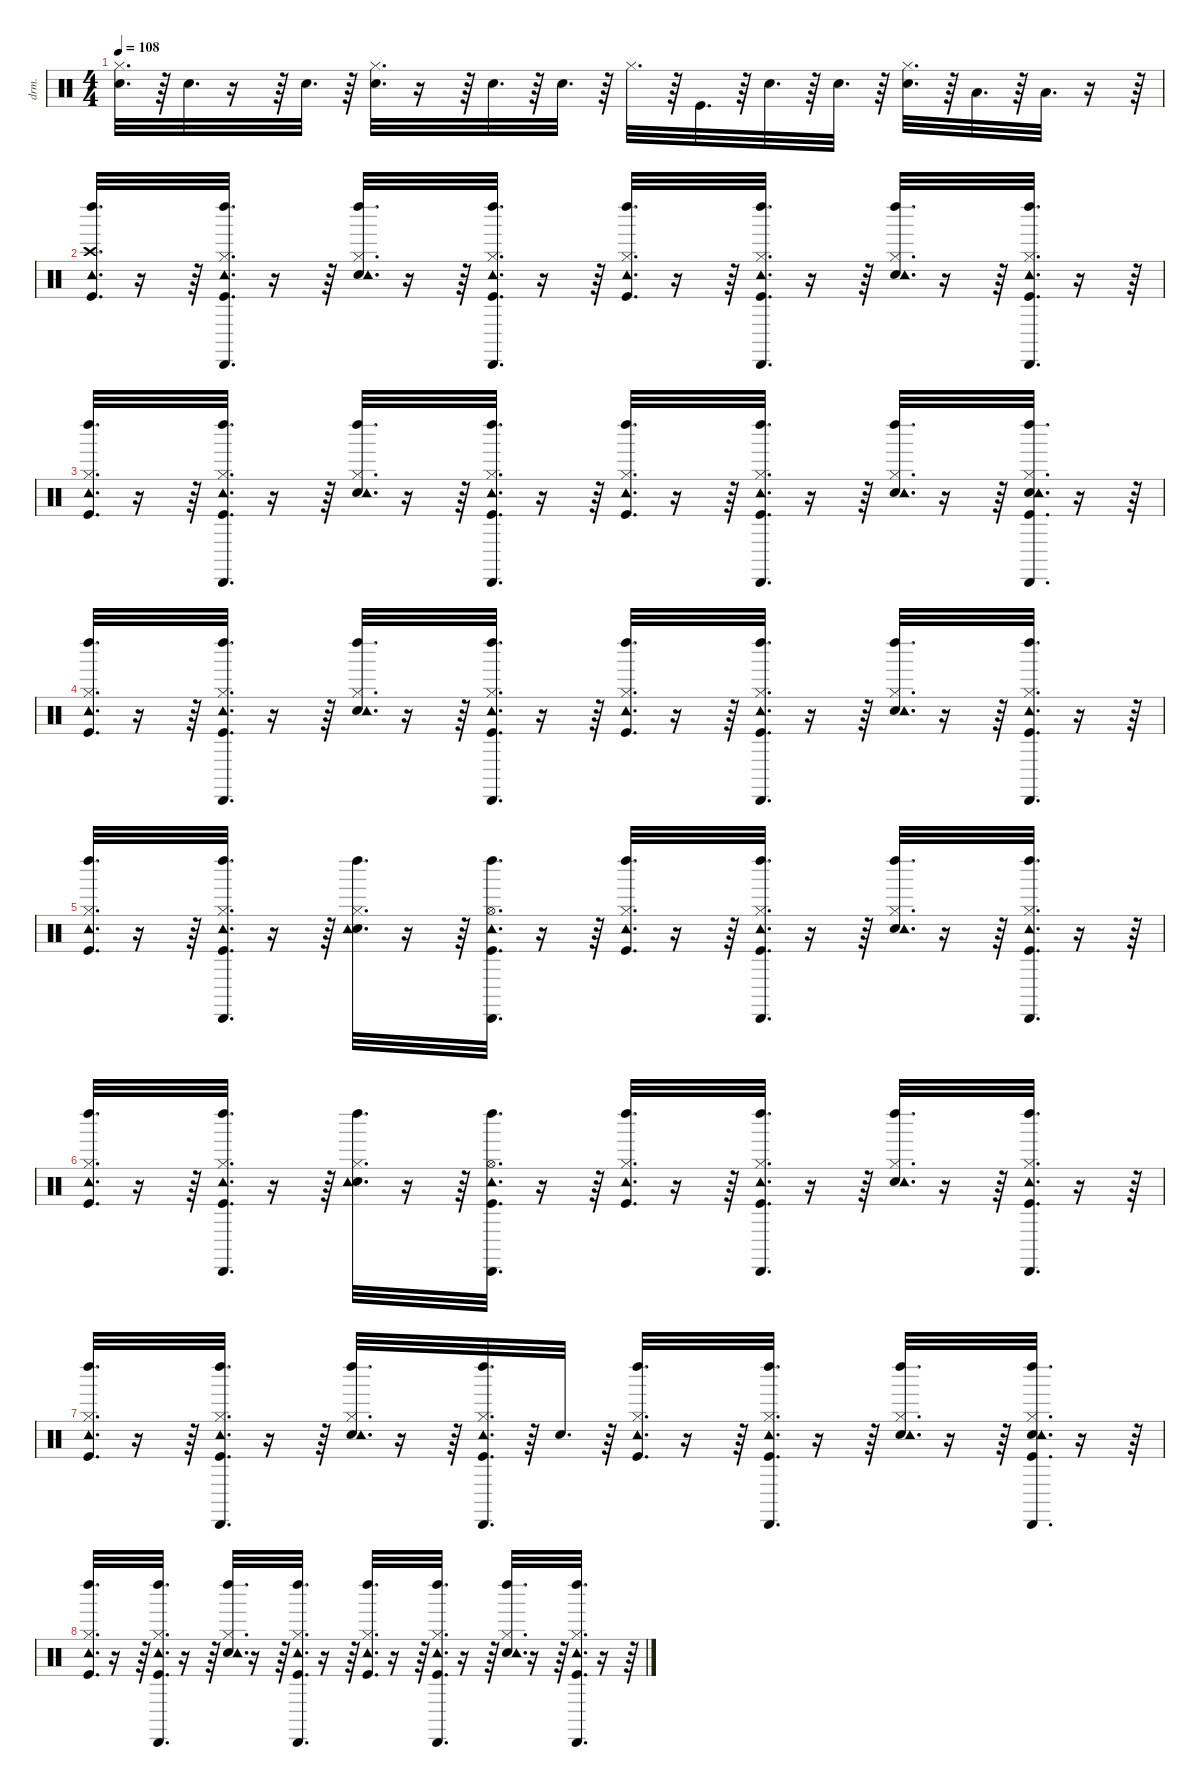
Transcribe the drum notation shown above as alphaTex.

\defaultSystemsLayout 4
\hideDynamics
\bracketExtendMode nobrackets
\otherSystemsTrackNameOrientation horizontal
\track ("Percussions" "drm.") {instrument percussion}
\staff {score}
\articulation defaults
\ts (4 4)
\tempo 108
\clef neutral
\ks c
("Hi-Hat (closed)" "Snare (hit) 2").32{d dy f} r.64 "Snare (hit) 2".32{d} r.16 r.64 "Snare (hit) 2".32{d} r.64 ("Hi-Hat (closed)" "Snare (hit) 2").32{d} r.16 r.64 "Snare (hit) 2".32{d} r.64 "Snare (hit) 2".32{d} r.64 "Hi-Hat (closed)".32{d} r.64 "Kick (hit)".32{d} r.64 "Snare (hit) 2".32{d} r.64 "Snare (hit) 2".32{d} r.64 ("Hi-Hat (closed)" "Snare (hit) 2").32{d} r.64 "Low Tom (hit)".32{d} r.64 "Low Tom (hit)".32{d} r.16 r.64 |
("Left Maraca (hit)" "Kick (hit)" "Crash high (hit)" "Tambourine (hit)").32{d} r.16 r.64 ("Cabasa (hit)" "Tambourine (hit)" "Kick (hit)" "Hi-Hat (closed)" "Left Maraca (hit)").32{d} r.16 r.64 ("Left Maraca (hit)" "Snare (hit) 2" "Hi-Hat (closed)" "Tambourine (hit)").32{d} r.16 r.64 ("Cabasa (hit)" "Tambourine (hit)" "Kick (hit)" "Hi-Hat (closed)" "Left Maraca (hit)").32{d} r.16 r.64 ("Left Maraca (hit)" "Kick (hit)" "Hi-Hat (closed)" "Tambourine (hit)").32{d} r.16 r.64 ("Cabasa (hit)" "Tambourine (hit)" "Kick (hit)" "Hi-Hat (closed)" "Left Maraca (hit)").32{d} r.16 r.64 ("Left Maraca (hit)" "Snare (hit) 2" "Hi-Hat (closed)" "Tambourine (hit)").32{d} r.16 r.64 ("Cabasa (hit)" "Tambourine (hit)" "Kick (hit)" "Hi-Hat (closed)" "Left Maraca (hit)").32{d} r.16 r.64 |
("Left Maraca (hit)" "Kick (hit)" "Hi-Hat (closed)" "Tambourine (hit)").32{d} r.16 r.64 ("Cabasa (hit)" "Tambourine (hit)" "Kick (hit)" "Hi-Hat (closed)" "Left Maraca (hit)").32{d} r.16 r.64 ("Left Maraca (hit)" "Snare (hit) 2" "Hi-Hat (closed)" "Tambourine (hit)").32{d} r.16 r.64 ("Cabasa (hit)" "Tambourine (hit)" "Kick (hit)" "Hi-Hat (closed)" "Left Maraca (hit)").32{d} r.16 r.64 ("Left Maraca (hit)" "Kick (hit)" "Hi-Hat (closed)" "Tambourine (hit)").32{d} r.16 r.64 ("Cabasa (hit)" "Tambourine (hit)" "Kick (hit)" "Hi-Hat (closed)" "Left Maraca (hit)").32{d} r.16 r.64 ("Left Maraca (hit)" "Snare (hit) 2" "Hi-Hat (closed)" "Tambourine (hit)").32{d} r.16 r.64 ("Cabasa (hit)" "Snare (hit) 2" "Hi-Hat (closed)" "Kick (hit)" "Left Maraca (hit)" "Tambourine (hit)").32{d} r.16 r.64 |
("Left Maraca (hit)" "Kick (hit)" "Hi-Hat (closed)" "Tambourine (hit)").32{d} r.16 r.64 ("Cabasa (hit)" "Tambourine (hit)" "Kick (hit)" "Hi-Hat (closed)" "Left Maraca (hit)").32{d} r.16 r.64 ("Left Maraca (hit)" "Snare (hit) 2" "Hi-Hat (closed)" "Tambourine (hit)").32{d} r.16 r.64 ("Cabasa (hit)" "Tambourine (hit)" "Kick (hit)" "Hi-Hat (closed)" "Left Maraca (hit)").32{d} r.16 r.64 ("Left Maraca (hit)" "Kick (hit)" "Hi-Hat (closed)" "Tambourine (hit)").32{d} r.16 r.64 ("Cabasa (hit)" "Tambourine (hit)" "Kick (hit)" "Hi-Hat (closed)" "Left Maraca (hit)").32{d} r.16 r.64 ("Left Maraca (hit)" "Snare (hit) 2" "Hi-Hat (closed)" "Tambourine (hit)").32{d} r.16 r.64 ("Cabasa (hit)" "Tambourine (hit)" "Kick (hit)" "Hi-Hat (closed)" "Left Maraca (hit)").32{d} r.16 r.64 |
("Left Maraca (hit)" "Kick (hit)" "Hi-Hat (closed)" "Tambourine (hit)").32{d} r.16 r.64 ("Cabasa (hit)" "Tambourine (hit)" "Kick (hit)" "Hi-Hat (closed)" "Left Maraca (hit)").32{d} r.16 r.64 ("Left Maraca (hit)" "Snare (hit) 2" "Hi-Hat (closed)" "Tambourine (hit)").32{d} r.16 r.64 ("Cabasa (hit)" "Tambourine (hit)" "Kick (hit)" "Hi-Hat (open)" "Left Maraca (hit)").32{d} r.16 r.64 ("Left Maraca (hit)" "Kick (hit)" "Hi-Hat (closed)" "Tambourine (hit)").32{d} r.16 r.64 ("Cabasa (hit)" "Tambourine (hit)" "Kick (hit)" "Hi-Hat (closed)" "Left Maraca (hit)").32{d} r.16 r.64 ("Left Maraca (hit)" "Snare (hit) 2" "Hi-Hat (closed)" "Tambourine (hit)").32{d} r.16 r.64 ("Cabasa (hit)" "Tambourine (hit)" "Kick (hit)" "Hi-Hat (closed)" "Left Maraca (hit)").32{d} r.16 r.64 |
("Left Maraca (hit)" "Kick (hit)" "Hi-Hat (closed)" "Tambourine (hit)").32{d} r.16 r.64 ("Cabasa (hit)" "Tambourine (hit)" "Kick (hit)" "Hi-Hat (closed)" "Left Maraca (hit)").32{d} r.16 r.64 ("Left Maraca (hit)" "Snare (hit) 2" "Hi-Hat (closed)" "Tambourine (hit)").32{d} r.16 r.64 ("Cabasa (hit)" "Tambourine (hit)" "Kick (hit)" "Hi-Hat (open)" "Left Maraca (hit)").32{d} r.16 r.64 ("Left Maraca (hit)" "Kick (hit)" "Hi-Hat (closed)" "Tambourine (hit)").32{d} r.16 r.64 ("Cabasa (hit)" "Tambourine (hit)" "Kick (hit)" "Hi-Hat (closed)" "Left Maraca (hit)").32{d} r.16 r.64 ("Left Maraca (hit)" "Snare (hit) 2" "Hi-Hat (closed)" "Tambourine (hit)").32{d} r.16 r.64 ("Cabasa (hit)" "Tambourine (hit)" "Kick (hit)" "Hi-Hat (closed)" "Left Maraca (hit)").32{d} r.16 r.64 |
("Left Maraca (hit)" "Kick (hit)" "Hi-Hat (closed)" "Tambourine (hit)").32{d} r.16 r.64 ("Cabasa (hit)" "Tambourine (hit)" "Kick (hit)" "Hi-Hat (closed)" "Left Maraca (hit)").32{d} r.16 r.64 ("Left Maraca (hit)" "Snare (hit) 2" "Hi-Hat (closed)" "Tambourine (hit)").32{d} r.16 r.64 ("Cabasa (hit)" "Tambourine (hit)" "Kick (hit)" "Hi-Hat (closed)" "Left Maraca (hit)").32{d} r.64 "Snare (hit) 2".32{d} r.64 ("Left Maraca (hit)" "Kick (hit)" "Hi-Hat (closed)" "Tambourine (hit)").32{d} r.16 r.64 ("Cabasa (hit)" "Tambourine (hit)" "Kick (hit)" "Hi-Hat (closed)" "Left Maraca (hit)").32{d} r.16 r.64 ("Left Maraca (hit)" "Snare (hit) 2" "Hi-Hat (closed)" "Tambourine (hit)").32{d} r.16 r.64 ("Cabasa (hit)" "Snare (hit) 2" "Hi-Hat (closed)" "Kick (hit)" "Left Maraca (hit)" "Tambourine (hit)").32{d} r.16 r.64 |
("Left Maraca (hit)" "Kick (hit)" "Hi-Hat (closed)" "Tambourine (hit)").32{d} r.16 r.64 ("Cabasa (hit)" "Tambourine (hit)" "Kick (hit)" "Hi-Hat (closed)" "Left Maraca (hit)").32{d} r.16 r.64 ("Left Maraca (hit)" "Snare (hit) 2" "Hi-Hat (closed)" "Tambourine (hit)").32{d} r.16 r.64 ("Cabasa (hit)" "Tambourine (hit)" "Kick (hit)" "Hi-Hat (closed)" "Left Maraca (hit)").32{d} r.16 r.64 ("Left Maraca (hit)" "Kick (hit)" "Hi-Hat (closed)" "Tambourine (hit)").32{d} r.16 r.64 ("Cabasa (hit)" "Tambourine (hit)" "Kick (hit)" "Hi-Hat (closed)" "Left Maraca (hit)").32{d} r.16 r.64 ("Left Maraca (hit)" "Snare (hit) 2" "Hi-Hat (closed)" "Tambourine (hit)").32{d} r.16 r.64 ("Cabasa (hit)" "Tambourine (hit)" "Kick (hit)" "Hi-Hat (closed)" "Left Maraca (hit)").32{d} r.16 r.64
